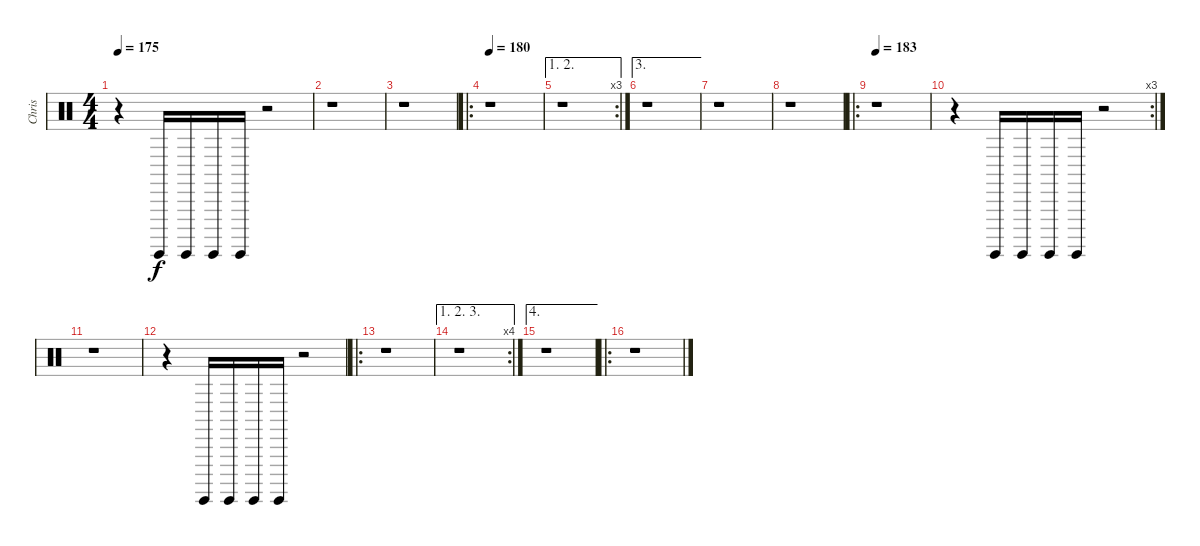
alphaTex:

\track ("Chris" "Chris") {instrument percussion}
\staff {score}
\articulation defaults
\ts (4 4)
\tempo 175
\clef neutral
\ks c
r.4{dy f} "Surdo (hit)".16 "Surdo (hit)".16 "Surdo (hit)".16 "Surdo (hit)".16 r.2 |
r.1 |
r.1 |
\ro
\tempo 180
r.1 |
\ae (1 2)
\rc 3
r.1 |
\ae 3
r.1 |
r.1 |
r.1 |
\ro
\tempo 183
r.1 |
\rc 3
r.4 "Surdo (hit)".16 "Surdo (hit)".16 "Surdo (hit)".16 "Surdo (hit)".16 r.2 |
r.1 |
r.4 "Surdo (hit)".16 "Surdo (hit)".16 "Surdo (hit)".16 "Surdo (hit)".16 r.2 |
\ro
r.1 |
\ae (1 2 3)
\rc 4
r.1 |
\ae 4
r.1 |
\ro
r.1
